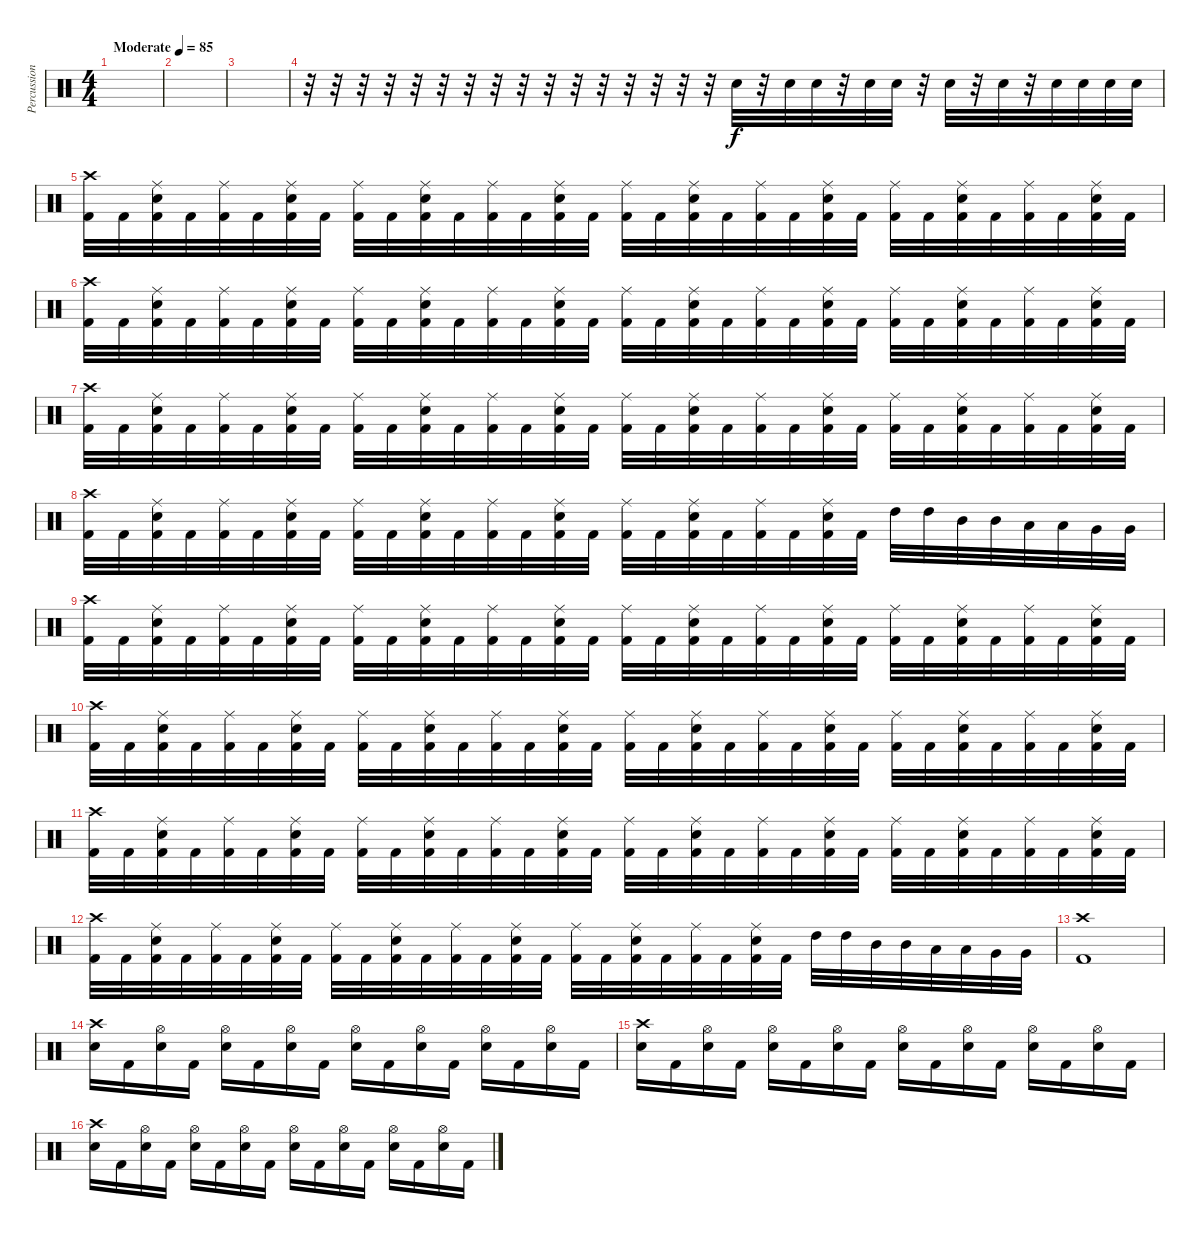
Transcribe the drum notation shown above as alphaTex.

\track ("Percussions" "Percussion") {instrument percussion}
\staff {score}
\articulation defaults
\ts (4 4)
\tempo (85 "Moderate")
\clef neutral
\ks c
|
|
|
r.32 r.32 r.32 r.32 r.32 r.32 r.32 r.32 r.32 r.32 r.32 r.32 r.32 r.32 r.32 r.32 "Snare (hit) 2".32 r.32 "Snare (hit) 2".32 "Snare (hit) 2".32 r.32 "Snare (hit) 2".32 "Snare (hit) 2".32 r.32 "Snare (hit) 2".32 r.32 "Snare (hit) 2".32 r.32 "Snare (hit) 2".32 "Snare (hit) 2".32 "Snare (hit) 2".32 "Snare (hit) 2".32 |
("Crash high (hit)" "Kick (hit) 2").32 "Kick (hit) 2".32 ("Ride (middle)" "Snare (hit) 2" "Kick (hit) 2").32 "Kick (hit) 2".32 ("Ride (middle)" "Kick (hit) 2").32 "Kick (hit) 2".32 ("Ride (middle)" "Snare (hit) 2" "Kick (hit) 2").32 "Kick (hit) 2".32 ("Ride (middle)" "Kick (hit) 2").32 "Kick (hit) 2".32 ("Ride (middle)" "Snare (hit) 2" "Kick (hit) 2").32 "Kick (hit) 2".32 ("Ride (middle)" "Kick (hit) 2").32 "Kick (hit) 2".32 ("Ride (middle)" "Snare (hit) 2" "Kick (hit) 2").32 "Kick (hit) 2".32 ("Ride (middle)" "Kick (hit) 2").32 "Kick (hit) 2".32 ("Ride (middle)" "Snare (hit) 2" "Kick (hit) 2").32 "Kick (hit) 2".32 ("Ride (middle)" "Kick (hit) 2").32 "Kick (hit) 2".32 ("Ride (middle)" "Snare (hit) 2" "Kick (hit) 2").32 "Kick (hit) 2".32 ("Ride (middle)" "Kick (hit) 2").32 "Kick (hit) 2".32 ("Ride (middle)" "Snare (hit) 2" "Kick (hit) 2").32 "Kick (hit) 2".32 ("Ride (middle)" "Kick (hit) 2").32 "Kick (hit) 2".32 ("Ride (middle)" "Snare (hit) 2" "Kick (hit) 2").32 "Kick (hit) 2".32 |
("Crash high (hit)" "Kick (hit) 2").32 "Kick (hit) 2".32 ("Ride (middle)" "Snare (hit) 2" "Kick (hit) 2").32 "Kick (hit) 2".32 ("Ride (middle)" "Kick (hit) 2").32 "Kick (hit) 2".32 ("Ride (middle)" "Snare (hit) 2" "Kick (hit) 2").32 "Kick (hit) 2".32 ("Ride (middle)" "Kick (hit) 2").32 "Kick (hit) 2".32 ("Ride (middle)" "Snare (hit) 2" "Kick (hit) 2").32 "Kick (hit) 2".32 ("Ride (middle)" "Kick (hit) 2").32 "Kick (hit) 2".32 ("Ride (middle)" "Snare (hit) 2" "Kick (hit) 2").32 "Kick (hit) 2".32 ("Ride (middle)" "Kick (hit) 2").32 "Kick (hit) 2".32 ("Ride (middle)" "Snare (hit) 2" "Kick (hit) 2").32 "Kick (hit) 2".32 ("Ride (middle)" "Kick (hit) 2").32 "Kick (hit) 2".32 ("Ride (middle)" "Snare (hit) 2" "Kick (hit) 2").32 "Kick (hit) 2".32 ("Ride (middle)" "Kick (hit) 2").32 "Kick (hit) 2".32 ("Ride (middle)" "Snare (hit) 2" "Kick (hit) 2").32 "Kick (hit) 2".32 ("Ride (middle)" "Kick (hit) 2").32 "Kick (hit) 2".32 ("Ride (middle)" "Snare (hit) 2" "Kick (hit) 2").32 "Kick (hit) 2".32 |
("Crash high (hit)" "Kick (hit) 2").32 "Kick (hit) 2".32 ("Ride (middle)" "Snare (hit) 2" "Kick (hit) 2").32 "Kick (hit) 2".32 ("Ride (middle)" "Kick (hit) 2").32 "Kick (hit) 2".32 ("Ride (middle)" "Snare (hit) 2" "Kick (hit) 2").32 "Kick (hit) 2".32 ("Ride (middle)" "Kick (hit) 2").32 "Kick (hit) 2".32 ("Ride (middle)" "Snare (hit) 2" "Kick (hit) 2").32 "Kick (hit) 2".32 ("Ride (middle)" "Kick (hit) 2").32 "Kick (hit) 2".32 ("Ride (middle)" "Snare (hit) 2" "Kick (hit) 2").32 "Kick (hit) 2".32 ("Ride (middle)" "Kick (hit) 2").32 "Kick (hit) 2".32 ("Ride (middle)" "Snare (hit) 2" "Kick (hit) 2").32 "Kick (hit) 2".32 ("Ride (middle)" "Kick (hit) 2").32 "Kick (hit) 2".32 ("Ride (middle)" "Snare (hit) 2" "Kick (hit) 2").32 "Kick (hit) 2".32 ("Ride (middle)" "Kick (hit) 2").32 "Kick (hit) 2".32 ("Ride (middle)" "Snare (hit) 2" "Kick (hit) 2").32 "Kick (hit) 2".32 ("Ride (middle)" "Kick (hit) 2").32 "Kick (hit) 2".32 ("Ride (middle)" "Snare (hit) 2" "Kick (hit) 2").32 "Kick (hit) 2".32 |
("Crash high (hit)" "Kick (hit) 2").32 "Kick (hit) 2".32 ("Ride (middle)" "Snare (hit) 2" "Kick (hit) 2").32 "Kick (hit) 2".32 ("Ride (middle)" "Kick (hit) 2").32 "Kick (hit) 2".32 ("Ride (middle)" "Snare (hit) 2" "Kick (hit) 2").32 "Kick (hit) 2".32 ("Ride (middle)" "Kick (hit) 2").32 "Kick (hit) 2".32 ("Ride (middle)" "Snare (hit) 2" "Kick (hit) 2").32 "Kick (hit) 2".32 ("Ride (middle)" "Kick (hit) 2").32 "Kick (hit) 2".32 ("Ride (middle)" "Snare (hit) 2" "Kick (hit) 2").32 "Kick (hit) 2".32 ("Ride (middle)" "Kick (hit) 2").32 "Kick (hit) 2".32 ("Ride (middle)" "Snare (hit) 2" "Kick (hit) 2").32 "Kick (hit) 2".32 ("Ride (middle)" "Kick (hit) 2").32 "Kick (hit) 2".32 ("Ride (middle)" "Snare (hit) 2" "Kick (hit) 2").32 "Kick (hit) 2".32 "High Tom (hit)".32 "High Tom (hit)".32 "Mid Tom (hit)".32 "Mid Tom (hit)".32 "Low Tom (hit)".32 "Low Tom (hit)".32 "Very Low Tom (hit)".32 "Very Low Tom (hit)".32 |
("Crash high (hit)" "Kick (hit) 2").32 "Kick (hit) 2".32 ("Ride (middle)" "Snare (hit) 2" "Kick (hit) 2").32 "Kick (hit) 2".32 ("Ride (middle)" "Kick (hit) 2").32 "Kick (hit) 2".32 ("Ride (middle)" "Snare (hit) 2" "Kick (hit) 2").32 "Kick (hit) 2".32 ("Ride (middle)" "Kick (hit) 2").32 "Kick (hit) 2".32 ("Ride (middle)" "Snare (hit) 2" "Kick (hit) 2").32 "Kick (hit) 2".32 ("Ride (middle)" "Kick (hit) 2").32 "Kick (hit) 2".32 ("Ride (middle)" "Snare (hit) 2" "Kick (hit) 2").32 "Kick (hit) 2".32 ("Ride (middle)" "Kick (hit) 2").32 "Kick (hit) 2".32 ("Ride (middle)" "Snare (hit) 2" "Kick (hit) 2").32 "Kick (hit) 2".32 ("Ride (middle)" "Kick (hit) 2").32 "Kick (hit) 2".32 ("Ride (middle)" "Snare (hit) 2" "Kick (hit) 2").32 "Kick (hit) 2".32 ("Ride (middle)" "Kick (hit) 2").32 "Kick (hit) 2".32 ("Ride (middle)" "Snare (hit) 2" "Kick (hit) 2").32 "Kick (hit) 2".32 ("Ride (middle)" "Kick (hit) 2").32 "Kick (hit) 2".32 ("Ride (middle)" "Snare (hit) 2" "Kick (hit) 2").32 "Kick (hit) 2".32 |
("Crash high (hit)" "Kick (hit) 2").32 "Kick (hit) 2".32 ("Ride (middle)" "Snare (hit) 2" "Kick (hit) 2").32 "Kick (hit) 2".32 ("Ride (middle)" "Kick (hit) 2").32 "Kick (hit) 2".32 ("Ride (middle)" "Snare (hit) 2" "Kick (hit) 2").32 "Kick (hit) 2".32 ("Ride (middle)" "Kick (hit) 2").32 "Kick (hit) 2".32 ("Ride (middle)" "Snare (hit) 2" "Kick (hit) 2").32 "Kick (hit) 2".32 ("Ride (middle)" "Kick (hit) 2").32 "Kick (hit) 2".32 ("Ride (middle)" "Snare (hit) 2" "Kick (hit) 2").32 "Kick (hit) 2".32 ("Ride (middle)" "Kick (hit) 2").32 "Kick (hit) 2".32 ("Ride (middle)" "Snare (hit) 2" "Kick (hit) 2").32 "Kick (hit) 2".32 ("Ride (middle)" "Kick (hit) 2").32 "Kick (hit) 2".32 ("Ride (middle)" "Snare (hit) 2" "Kick (hit) 2").32 "Kick (hit) 2".32 ("Ride (middle)" "Kick (hit) 2").32 "Kick (hit) 2".32 ("Ride (middle)" "Snare (hit) 2" "Kick (hit) 2").32 "Kick (hit) 2".32 ("Ride (middle)" "Kick (hit) 2").32 "Kick (hit) 2".32 ("Ride (middle)" "Snare (hit) 2" "Kick (hit) 2").32 "Kick (hit) 2".32 |
("Crash high (hit)" "Kick (hit) 2").32 "Kick (hit) 2".32 ("Ride (middle)" "Snare (hit) 2" "Kick (hit) 2").32 "Kick (hit) 2".32 ("Ride (middle)" "Kick (hit) 2").32 "Kick (hit) 2".32 ("Ride (middle)" "Snare (hit) 2" "Kick (hit) 2").32 "Kick (hit) 2".32 ("Ride (middle)" "Kick (hit) 2").32 "Kick (hit) 2".32 ("Ride (middle)" "Snare (hit) 2" "Kick (hit) 2").32 "Kick (hit) 2".32 ("Ride (middle)" "Kick (hit) 2").32 "Kick (hit) 2".32 ("Ride (middle)" "Snare (hit) 2" "Kick (hit) 2").32 "Kick (hit) 2".32 ("Ride (middle)" "Kick (hit) 2").32 "Kick (hit) 2".32 ("Ride (middle)" "Snare (hit) 2" "Kick (hit) 2").32 "Kick (hit) 2".32 ("Ride (middle)" "Kick (hit) 2").32 "Kick (hit) 2".32 ("Ride (middle)" "Snare (hit) 2" "Kick (hit) 2").32 "Kick (hit) 2".32 ("Ride (middle)" "Kick (hit) 2").32 "Kick (hit) 2".32 ("Ride (middle)" "Snare (hit) 2" "Kick (hit) 2").32 "Kick (hit) 2".32 ("Ride (middle)" "Kick (hit) 2").32 "Kick (hit) 2".32 ("Ride (middle)" "Snare (hit) 2" "Kick (hit) 2").32 "Kick (hit) 2".32 |
("Crash high (hit)" "Kick (hit) 2").32 "Kick (hit) 2".32 ("Ride (middle)" "Snare (hit) 2" "Kick (hit) 2").32 "Kick (hit) 2".32 ("Ride (middle)" "Kick (hit) 2").32 "Kick (hit) 2".32 ("Ride (middle)" "Snare (hit) 2" "Kick (hit) 2").32 "Kick (hit) 2".32 ("Ride (middle)" "Kick (hit) 2").32 "Kick (hit) 2".32 ("Ride (middle)" "Snare (hit) 2" "Kick (hit) 2").32 "Kick (hit) 2".32 ("Ride (middle)" "Kick (hit) 2").32 "Kick (hit) 2".32 ("Ride (middle)" "Snare (hit) 2" "Kick (hit) 2").32 "Kick (hit) 2".32 ("Ride (middle)" "Kick (hit) 2").32 "Kick (hit) 2".32 ("Ride (middle)" "Snare (hit) 2" "Kick (hit) 2").32 "Kick (hit) 2".32 ("Ride (middle)" "Kick (hit) 2").32 "Kick (hit) 2".32 ("Ride (middle)" "Snare (hit) 2" "Kick (hit) 2").32 "Kick (hit) 2".32 "High Tom (hit)".32 "High Tom (hit)".32 "Mid Tom (hit)".32 "Mid Tom (hit)".32 "Low Tom (hit)".32 "Low Tom (hit)".32 "Very Low Tom (hit)".32 "Very Low Tom (hit)".32 |
("Crash high (hit)" "Kick (hit) 2").1 |
("Crash high (hit)" "Snare (hit) 2").16 "Kick (hit) 2".16 ("Hi-Hat (open)" "Snare (hit) 2").16 "Kick (hit) 2".16 ("Hi-Hat (open)" "Snare (hit) 2").16 "Kick (hit) 2".16 ("Hi-Hat (open)" "Snare (hit) 2").16 "Kick (hit) 2".16 ("Hi-Hat (open)" "Snare (hit) 2").16 "Kick (hit) 2".16 ("Hi-Hat (open)" "Snare (hit) 2").16 "Kick (hit) 2".16 ("Hi-Hat (open)" "Snare (hit) 2").16 "Kick (hit) 2".16 ("Hi-Hat (open)" "Snare (hit) 2").16 "Kick (hit) 2".16 |
("Crash high (hit)" "Snare (hit) 2").16 "Kick (hit) 2".16 ("Hi-Hat (open)" "Snare (hit) 2").16 "Kick (hit) 2".16 ("Hi-Hat (open)" "Snare (hit) 2").16 "Kick (hit) 2".16 ("Hi-Hat (open)" "Snare (hit) 2").16 "Kick (hit) 2".16 ("Hi-Hat (open)" "Snare (hit) 2").16 "Kick (hit) 2".16 ("Hi-Hat (open)" "Snare (hit) 2").16 "Kick (hit) 2".16 ("Hi-Hat (open)" "Snare (hit) 2").16 "Kick (hit) 2".16 ("Hi-Hat (open)" "Snare (hit) 2").16 "Kick (hit) 2".16 |
("Crash high (hit)" "Snare (hit) 2").16 "Kick (hit) 2".16 ("Hi-Hat (open)" "Snare (hit) 2").16 "Kick (hit) 2".16 ("Hi-Hat (open)" "Snare (hit) 2").16 "Kick (hit) 2".16 ("Hi-Hat (open)" "Snare (hit) 2").16 "Kick (hit) 2".16 ("Hi-Hat (open)" "Snare (hit) 2").16 "Kick (hit) 2".16 ("Hi-Hat (open)" "Snare (hit) 2").16 "Kick (hit) 2".16 ("Hi-Hat (open)" "Snare (hit) 2").16 "Kick (hit) 2".16 ("Hi-Hat (open)" "Snare (hit) 2").16 "Kick (hit) 2".16
